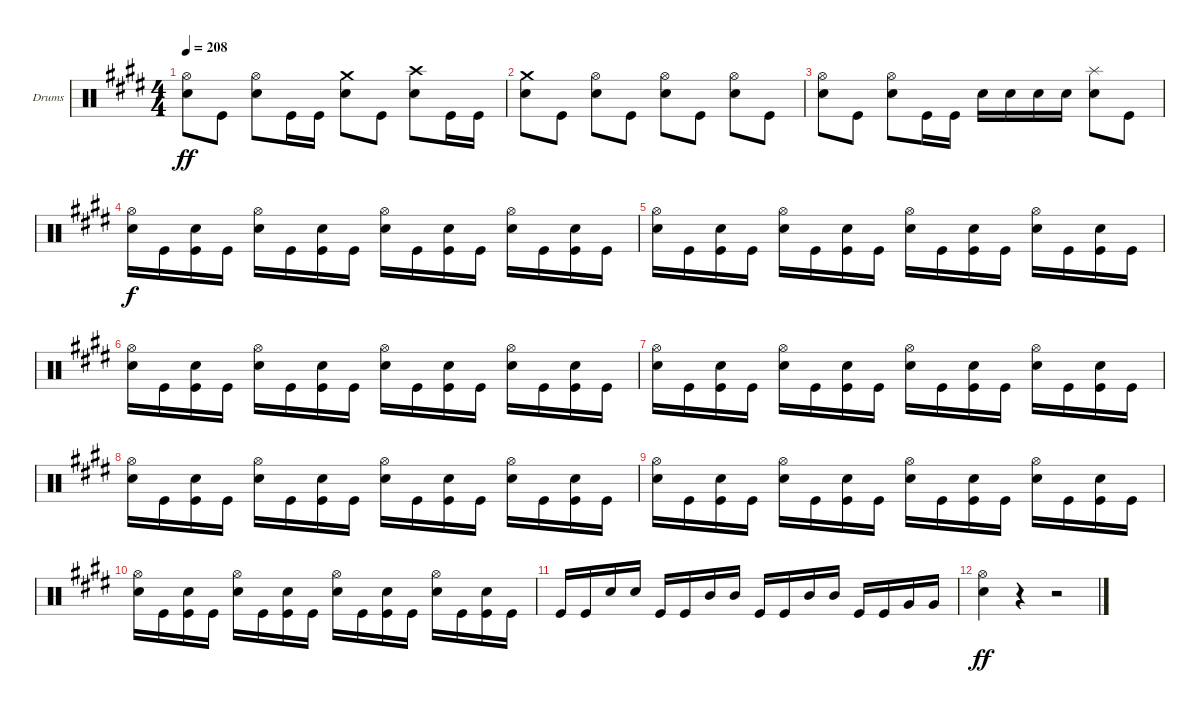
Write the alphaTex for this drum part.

\defaultSystemsLayout 4
\bracketExtendMode groupsimilarinstruments
\firstSystemTrackNameOrientation horizontal
\otherSystemsTrackNameOrientation horizontal
\track ("Corey Friedlander - Drums" "Drums") {instrument percussion}
\staff {score}
\articulation defaults
\ts (4 4)
\tempo 208
\clef neutral
\ks c#minor
("Snare (hit) 2" "Hi-Hat (open)").8{dy ff} "Kick (hit)".8 ("Snare (hit) 2" "Hi-Hat (open)").8 "Kick (hit)".16 "Kick (hit)".16 ("Snare (hit) 2" "Crash medium (hit)").8 "Kick (hit)".8 ("Snare (hit) 2" "Crash high (hit)").8 "Kick (hit)".16 "Kick (hit)".16 |
("Snare (hit) 2" "Crash medium (hit)").8 "Kick (hit)".8 ("Snare (hit) 2" "Hi-Hat (open)").8 "Kick (hit)".8 ("Snare (hit) 2" "Hi-Hat (open)").8 "Kick (hit)".8 ("Snare (hit) 2" "Hi-Hat (open)").8 "Kick (hit)".8 |
("Snare (hit) 2" "Hi-Hat (open)").8 "Kick (hit)".8 ("Snare (hit) 2" "Hi-Hat (open)").8 "Kick (hit)".16 "Kick (hit)".16 "Snare (hit) 2".16 "Snare (hit) 2".16 "Snare (hit) 2".16 "Snare (hit) 2".16 ("Splash (hit)" "Snare (hit) 2").8 "Kick (hit)".8 |
("Snare (hit) 2" "Hi-Hat (open)").16{dy f} "Kick (hit)".16 ("Kick (hit)" "Snare (hit) 2").16 "Kick (hit)".16 ("Snare (hit) 2" "Hi-Hat (open)").16 "Kick (hit)".16 ("Kick (hit)" "Snare (hit) 2").16 "Kick (hit)".16 ("Snare (hit) 2" "Hi-Hat (open)").16 "Kick (hit)".16 ("Kick (hit)" "Snare (hit) 2").16 "Kick (hit)".16 ("Snare (hit) 2" "Hi-Hat (open)").16 "Kick (hit)".16 ("Kick (hit)" "Snare (hit) 2").16 "Kick (hit)".16 |
("Snare (hit) 2" "Hi-Hat (open)").16 "Kick (hit)".16 ("Kick (hit)" "Snare (hit) 2").16 "Kick (hit)".16 ("Snare (hit) 2" "Hi-Hat (open)").16 "Kick (hit)".16 ("Kick (hit)" "Snare (hit) 2").16 "Kick (hit)".16 ("Snare (hit) 2" "Hi-Hat (open)").16 "Kick (hit)".16 ("Kick (hit)" "Snare (hit) 2").16 "Kick (hit)".16 ("Snare (hit) 2" "Hi-Hat (open)").16 "Kick (hit)".16 ("Kick (hit)" "Snare (hit) 2").16 "Kick (hit)".16 |
("Snare (hit) 2" "Hi-Hat (open)").16 "Kick (hit)".16 ("Kick (hit)" "Snare (hit) 2").16 "Kick (hit)".16 ("Snare (hit) 2" "Hi-Hat (open)").16 "Kick (hit)".16 ("Kick (hit)" "Snare (hit) 2").16 "Kick (hit)".16 ("Snare (hit) 2" "Hi-Hat (open)").16 "Kick (hit)".16 ("Kick (hit)" "Snare (hit) 2").16 "Kick (hit)".16 ("Snare (hit) 2" "Hi-Hat (open)").16 "Kick (hit)".16 ("Kick (hit)" "Snare (hit) 2").16 "Kick (hit)".16 |
("Snare (hit) 2" "Hi-Hat (open)").16 "Kick (hit)".16 ("Kick (hit)" "Snare (hit) 2").16 "Kick (hit)".16 ("Snare (hit) 2" "Hi-Hat (open)").16 "Kick (hit)".16 ("Kick (hit)" "Snare (hit) 2").16 "Kick (hit)".16 ("Snare (hit) 2" "Hi-Hat (open)").16 "Kick (hit)".16 ("Kick (hit)" "Snare (hit) 2").16 "Kick (hit)".16 ("Snare (hit) 2" "Hi-Hat (open)").16 "Kick (hit)".16 ("Kick (hit)" "Snare (hit) 2").16 "Kick (hit)".16 |
("Snare (hit) 2" "Hi-Hat (open)").16 "Kick (hit)".16 ("Kick (hit)" "Snare (hit) 2").16 "Kick (hit)".16 ("Snare (hit) 2" "Hi-Hat (open)").16 "Kick (hit)".16 ("Kick (hit)" "Snare (hit) 2").16 "Kick (hit)".16 ("Snare (hit) 2" "Hi-Hat (open)").16 "Kick (hit)".16 ("Kick (hit)" "Snare (hit) 2").16 "Kick (hit)".16 ("Snare (hit) 2" "Hi-Hat (open)").16 "Kick (hit)".16 ("Kick (hit)" "Snare (hit) 2").16 "Kick (hit)".16 |
("Snare (hit) 2" "Hi-Hat (open)").16 "Kick (hit)".16 ("Kick (hit)" "Snare (hit) 2").16 "Kick (hit)".16 ("Snare (hit) 2" "Hi-Hat (open)").16 "Kick (hit)".16 ("Kick (hit)" "Snare (hit) 2").16 "Kick (hit)".16 ("Snare (hit) 2" "Hi-Hat (open)").16 "Kick (hit)".16 ("Kick (hit)" "Snare (hit) 2").16 "Kick (hit)".16 ("Snare (hit) 2" "Hi-Hat (open)").16 "Kick (hit)".16 ("Kick (hit)" "Snare (hit) 2").16 "Kick (hit)".16 |
("Snare (hit) 2" "Hi-Hat (open)").16 "Kick (hit)".16 ("Kick (hit)" "Snare (hit) 2").16 "Kick (hit)".16 ("Snare (hit) 2" "Hi-Hat (open)").16 "Kick (hit)".16 ("Kick (hit)" "Snare (hit) 2").16 "Kick (hit)".16 ("Snare (hit) 2" "Hi-Hat (open)").16 "Kick (hit)".16 ("Kick (hit)" "Snare (hit) 2").16 "Kick (hit)".16 ("Snare (hit) 2" "Hi-Hat (open)").16 "Kick (hit)".16 ("Kick (hit)" "Snare (hit) 2").16 "Kick (hit)".16 |
"Kick (hit)".16 "Kick (hit)".16 "Snare (hit) 2".16 "Snare (hit) 2".16 "Kick (hit)".16 "Kick (hit)".16 "Mid Tom (hit)".16 "Mid Tom (hit)".16 "Kick (hit)".16 "Kick (hit)".16 "Mid Tom (hit)".16 "Mid Tom (hit)".16 "Kick (hit)".16 "Kick (hit)".16 "Very Low Tom (hit)".16 "Very Low Tom (hit)".16 |
("Snare (hit) 2" "Hi-Hat (open)").4{dy ff} r.4 r.2
